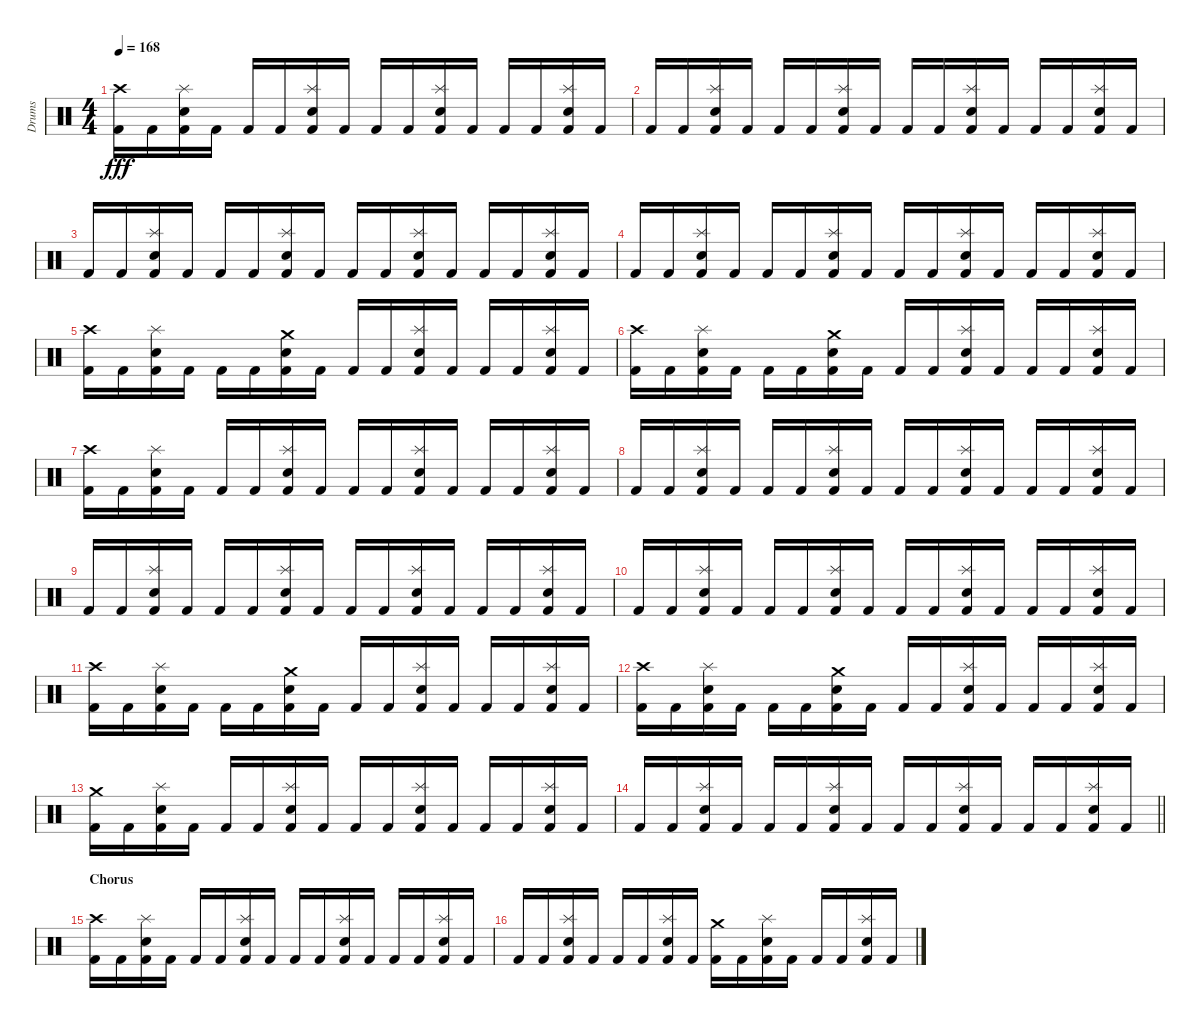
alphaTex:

\track ("Drums" "Drums") {instrument percussion}
\staff {score}
\articulation defaults
\ts (4 4)
\tempo 168
\clef neutral
\ks c
("Crash high (hit)" "Kick (hit) 2").16{dy fff} "Kick (hit) 2".16 ("Splash (hit)" "Snare (hit) 2" "Kick (hit) 2").16 "Kick (hit) 2".16 "Kick (hit) 2".16 "Kick (hit) 2".16 ("Splash (hit)" "Snare (hit) 2" "Kick (hit) 2").16 "Kick (hit) 2".16 "Kick (hit) 2".16 "Kick (hit) 2".16 ("Splash (hit)" "Snare (hit) 2" "Kick (hit) 2").16 "Kick (hit) 2".16 "Kick (hit) 2".16 "Kick (hit) 2".16 ("Splash (hit)" "Snare (hit) 2" "Kick (hit) 2").16 "Kick (hit) 2".16 |
"Kick (hit) 2".16 "Kick (hit) 2".16 ("Splash (hit)" "Snare (hit) 2" "Kick (hit) 2").16 "Kick (hit) 2".16 "Kick (hit) 2".16 "Kick (hit) 2".16 ("Splash (hit)" "Snare (hit) 2" "Kick (hit) 2").16 "Kick (hit) 2".16 "Kick (hit) 2".16 "Kick (hit) 2".16 ("Splash (hit)" "Snare (hit) 2" "Kick (hit) 2").16 "Kick (hit) 2".16 "Kick (hit) 2".16 "Kick (hit) 2".16 ("Splash (hit)" "Snare (hit) 2" "Kick (hit) 2").16 "Kick (hit) 2".16 |
"Kick (hit) 2".16 "Kick (hit) 2".16 ("Splash (hit)" "Snare (hit) 2" "Kick (hit) 2").16 "Kick (hit) 2".16 "Kick (hit) 2".16 "Kick (hit) 2".16 ("Splash (hit)" "Snare (hit) 2" "Kick (hit) 2").16 "Kick (hit) 2".16 "Kick (hit) 2".16 "Kick (hit) 2".16 ("Splash (hit)" "Snare (hit) 2" "Kick (hit) 2").16 "Kick (hit) 2".16 "Kick (hit) 2".16 "Kick (hit) 2".16 ("Splash (hit)" "Snare (hit) 2" "Kick (hit) 2").16 "Kick (hit) 2".16 |
"Kick (hit) 2".16 "Kick (hit) 2".16 ("Splash (hit)" "Snare (hit) 2" "Kick (hit) 2").16 "Kick (hit) 2".16 "Kick (hit) 2".16 "Kick (hit) 2".16 ("Splash (hit)" "Snare (hit) 2" "Kick (hit) 2").16 "Kick (hit) 2".16 "Kick (hit) 2".16 "Kick (hit) 2".16 ("Splash (hit)" "Snare (hit) 2" "Kick (hit) 2").16 "Kick (hit) 2".16 "Kick (hit) 2".16 "Kick (hit) 2".16 ("Splash (hit)" "Snare (hit) 2" "Kick (hit) 2").16 "Kick (hit) 2".16 |
("Crash high (hit)" "Kick (hit) 2").16 "Kick (hit) 2".16 ("Splash (hit)" "Snare (hit) 2" "Kick (hit) 2").16 "Kick (hit) 2".16 "Kick (hit) 2".16 "Kick (hit) 2".16 ("Crash medium (hit)" "Snare (hit) 2" "Kick (hit) 2").16 "Kick (hit) 2".16 "Kick (hit) 2".16 "Kick (hit) 2".16 ("Splash (hit)" "Snare (hit) 2" "Kick (hit) 2").16 "Kick (hit) 2".16 "Kick (hit) 2".16 "Kick (hit) 2".16 ("Splash (hit)" "Snare (hit) 2" "Kick (hit) 2").16 "Kick (hit) 2".16 |
("Crash high (hit)" "Kick (hit) 2").16 "Kick (hit) 2".16 ("Splash (hit)" "Snare (hit) 2" "Kick (hit) 2").16 "Kick (hit) 2".16 "Kick (hit) 2".16 "Kick (hit) 2".16 ("Crash medium (hit)" "Snare (hit) 2" "Kick (hit) 2").16 "Kick (hit) 2".16 "Kick (hit) 2".16 "Kick (hit) 2".16 ("Splash (hit)" "Snare (hit) 2" "Kick (hit) 2").16 "Kick (hit) 2".16 "Kick (hit) 2".16 "Kick (hit) 2".16 ("Splash (hit)" "Snare (hit) 2" "Kick (hit) 2").16 "Kick (hit) 2".16 |
("Crash high (hit)" "Kick (hit) 2").16 "Kick (hit) 2".16 ("Splash (hit)" "Snare (hit) 2" "Kick (hit) 2").16 "Kick (hit) 2".16 "Kick (hit) 2".16 "Kick (hit) 2".16 ("Splash (hit)" "Snare (hit) 2" "Kick (hit) 2").16 "Kick (hit) 2".16 "Kick (hit) 2".16 "Kick (hit) 2".16 ("Splash (hit)" "Snare (hit) 2" "Kick (hit) 2").16 "Kick (hit) 2".16 "Kick (hit) 2".16 "Kick (hit) 2".16 ("Splash (hit)" "Snare (hit) 2" "Kick (hit) 2").16 "Kick (hit) 2".16 |
"Kick (hit) 2".16 "Kick (hit) 2".16 ("Splash (hit)" "Snare (hit) 2" "Kick (hit) 2").16 "Kick (hit) 2".16 "Kick (hit) 2".16 "Kick (hit) 2".16 ("Splash (hit)" "Snare (hit) 2" "Kick (hit) 2").16 "Kick (hit) 2".16 "Kick (hit) 2".16 "Kick (hit) 2".16 ("Splash (hit)" "Snare (hit) 2" "Kick (hit) 2").16 "Kick (hit) 2".16 "Kick (hit) 2".16 "Kick (hit) 2".16 ("Splash (hit)" "Snare (hit) 2" "Kick (hit) 2").16 "Kick (hit) 2".16 |
"Kick (hit) 2".16 "Kick (hit) 2".16 ("Splash (hit)" "Snare (hit) 2" "Kick (hit) 2").16 "Kick (hit) 2".16 "Kick (hit) 2".16 "Kick (hit) 2".16 ("Splash (hit)" "Snare (hit) 2" "Kick (hit) 2").16 "Kick (hit) 2".16 "Kick (hit) 2".16 "Kick (hit) 2".16 ("Splash (hit)" "Snare (hit) 2" "Kick (hit) 2").16 "Kick (hit) 2".16 "Kick (hit) 2".16 "Kick (hit) 2".16 ("Splash (hit)" "Snare (hit) 2" "Kick (hit) 2").16 "Kick (hit) 2".16 |
"Kick (hit) 2".16 "Kick (hit) 2".16 ("Splash (hit)" "Snare (hit) 2" "Kick (hit) 2").16 "Kick (hit) 2".16 "Kick (hit) 2".16 "Kick (hit) 2".16 ("Splash (hit)" "Snare (hit) 2" "Kick (hit) 2").16 "Kick (hit) 2".16 "Kick (hit) 2".16 "Kick (hit) 2".16 ("Splash (hit)" "Snare (hit) 2" "Kick (hit) 2").16 "Kick (hit) 2".16 "Kick (hit) 2".16 "Kick (hit) 2".16 ("Splash (hit)" "Snare (hit) 2" "Kick (hit) 2").16 "Kick (hit) 2".16 |
("Crash high (hit)" "Kick (hit) 2").16 "Kick (hit) 2".16 ("Splash (hit)" "Snare (hit) 2" "Kick (hit) 2").16 "Kick (hit) 2".16 "Kick (hit) 2".16 "Kick (hit) 2".16 ("Crash medium (hit)" "Snare (hit) 2" "Kick (hit) 2").16 "Kick (hit) 2".16 "Kick (hit) 2".16 "Kick (hit) 2".16 ("Splash (hit)" "Snare (hit) 2" "Kick (hit) 2").16 "Kick (hit) 2".16 "Kick (hit) 2".16 "Kick (hit) 2".16 ("Splash (hit)" "Snare (hit) 2" "Kick (hit) 2").16 "Kick (hit) 2".16 |
("Crash high (hit)" "Kick (hit) 2").16 "Kick (hit) 2".16 ("Splash (hit)" "Snare (hit) 2" "Kick (hit) 2").16 "Kick (hit) 2".16 "Kick (hit) 2".16 "Kick (hit) 2".16 ("Crash medium (hit)" "Snare (hit) 2" "Kick (hit) 2").16 "Kick (hit) 2".16 "Kick (hit) 2".16 "Kick (hit) 2".16 ("Splash (hit)" "Snare (hit) 2" "Kick (hit) 2").16 "Kick (hit) 2".16 "Kick (hit) 2".16 "Kick (hit) 2".16 ("Splash (hit)" "Snare (hit) 2" "Kick (hit) 2").16 "Kick (hit) 2".16 |
("Crash medium (hit)" "Kick (hit) 2").16 "Kick (hit) 2".16 ("Splash (hit)" "Snare (hit) 2" "Kick (hit) 2").16 "Kick (hit) 2".16 "Kick (hit) 2".16 "Kick (hit) 2".16 ("Splash (hit)" "Snare (hit) 2" "Kick (hit) 2").16 "Kick (hit) 2".16 "Kick (hit) 2".16 "Kick (hit) 2".16 ("Splash (hit)" "Snare (hit) 2" "Kick (hit) 2").16 "Kick (hit) 2".16 "Kick (hit) 2".16 "Kick (hit) 2".16 ("Splash (hit)" "Snare (hit) 2" "Kick (hit) 2").16 "Kick (hit) 2".16 |
\barLineRight lightlight "Kick (hit) 2".16 "Kick (hit) 2".16
("Splash (hit)" "Snare (hit) 2" "Kick (hit) 2").16 "Kick (hit) 2".16 "Kick (hit) 2".16 "Kick (hit) 2".16 ("Splash (hit)" "Snare (hit) 2" "Kick (hit) 2").16 "Kick (hit) 2".16 "Kick (hit) 2".16 "Kick (hit) 2".16 ("Splash (hit)" "Snare (hit) 2" "Kick (hit) 2").16 "Kick (hit) 2".16 "Kick (hit) 2".16 "Kick (hit) 2".16 ("Splash (hit)" "Snare (hit) 2" "Kick (hit) 2").16 "Kick (hit) 2".16 |
\section ("" "Chorus")
("Crash high (hit)" "Kick (hit) 2").16 "Kick (hit) 2".16 ("Splash (hit)" "Snare (hit) 2" "Kick (hit) 2").16 "Kick (hit) 2".16 "Kick (hit) 2".16 "Kick (hit) 2".16 ("Splash (hit)" "Snare (hit) 2" "Kick (hit) 2").16 "Kick (hit) 2".16 "Kick (hit) 2".16 "Kick (hit) 2".16 ("Splash (hit)" "Snare (hit) 2" "Kick (hit) 2").16 "Kick (hit) 2".16 "Kick (hit) 2".16 "Kick (hit) 2".16 ("Splash (hit)" "Snare (hit) 2" "Kick (hit) 2").16 "Kick (hit) 2".16 |
"Kick (hit) 2".16 "Kick (hit) 2".16 ("Splash (hit)" "Snare (hit) 2" "Kick (hit) 2").16 "Kick (hit) 2".16 "Kick (hit) 2".16 "Kick (hit) 2".16 ("Splash (hit)" "Snare (hit) 2" "Kick (hit) 2").16 "Kick (hit) 2".16 ("Crash medium (hit)" "Kick (hit) 2").16 "Kick (hit) 2".16 ("Splash (hit)" "Snare (hit) 2" "Kick (hit) 2").16 "Kick (hit) 2".16 "Kick (hit) 2".16 "Kick (hit) 2".16 ("Splash (hit)" "Snare (hit) 2" "Kick (hit) 2").16 "Kick (hit) 2".16
